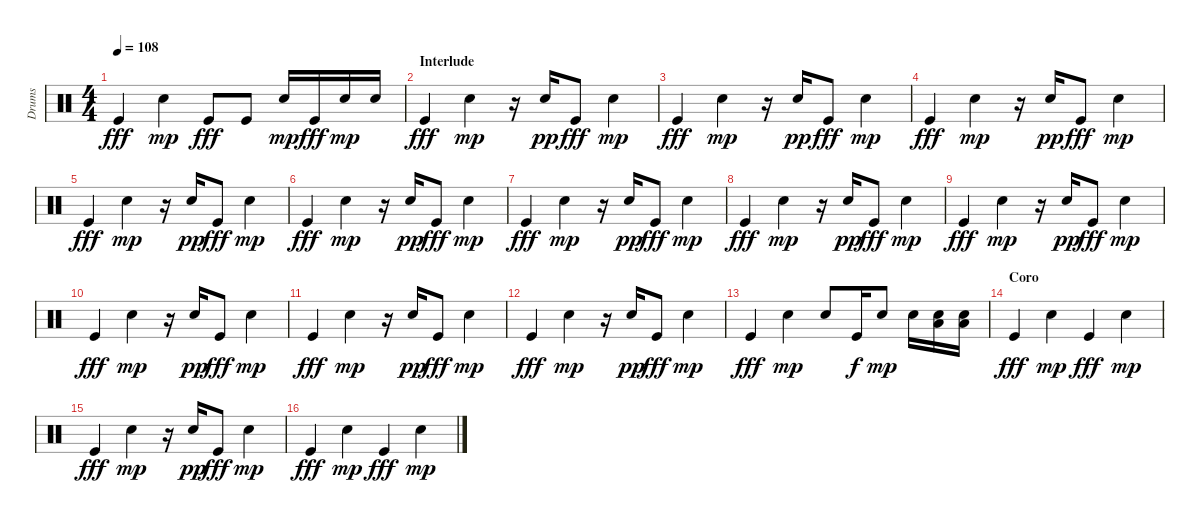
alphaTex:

\track ("Drums" "Drums") {instrument percussion}
\staff {score}
\articulation defaults
\ts (4 4)
\tempo 108
\clef neutral
\ks c "Kick (hit)".4{dy fff} "Snare (hit) 2".4{dy mp} "Kick (hit)".8{dy fff} "Kick (hit)".8 "Snare (hit) 2".16{dy mp} "Kick (hit)".16{dy fff} "Snare (hit) 2".16{dy mp} "Snare (hit) 2".16
|
\section ("" "Interlude")
"Kick (hit)".4{dy fff} "Snare (hit) 2".4{dy mp} r.16 "Snare (hit) 2".16{dy pp} "Kick (hit)".8{dy fff} "Snare (hit) 2".4{dy mp} |
"Kick (hit)".4{dy fff} "Snare (hit) 2".4{dy mp} r.16 "Snare (hit) 2".16{dy pp} "Kick (hit)".8{dy fff} "Snare (hit) 2".4{dy mp} |
"Kick (hit)".4{dy fff} "Snare (hit) 2".4{dy mp} r.16 "Snare (hit) 2".16{dy pp} "Kick (hit)".8{dy fff} "Snare (hit) 2".4{dy mp} |
"Kick (hit)".4{dy fff} "Snare (hit) 2".4{dy mp} r.16 "Snare (hit) 2".16{dy pp} "Kick (hit)".8{dy fff} "Snare (hit) 2".4{dy mp} |
"Kick (hit)".4{dy fff} "Snare (hit) 2".4{dy mp} r.16 "Snare (hit) 2".16{dy pp} "Kick (hit)".8{dy fff} "Snare (hit) 2".4{dy mp} |
"Kick (hit)".4{dy fff} "Snare (hit) 2".4{dy mp} r.16 "Snare (hit) 2".16{dy pp} "Kick (hit)".8{dy fff} "Snare (hit) 2".4{dy mp} |
"Kick (hit)".4{dy fff} "Snare (hit) 2".4{dy mp} r.16 "Snare (hit) 2".16{dy pp} "Kick (hit)".8{dy fff} "Snare (hit) 2".4{dy mp} |
"Kick (hit)".4{dy fff} "Snare (hit) 2".4{dy mp} r.16 "Snare (hit) 2".16{dy pp} "Kick (hit)".8{dy fff} "Snare (hit) 2".4{dy mp} |
"Kick (hit)".4{dy fff} "Snare (hit) 2".4{dy mp} r.16 "Snare (hit) 2".16{dy pp} "Kick (hit)".8{dy fff} "Snare (hit) 2".4{dy mp} |
"Kick (hit)".4{dy fff} "Snare (hit) 2".4{dy mp} r.16 "Snare (hit) 2".16{dy pp} "Kick (hit)".8{dy fff} "Snare (hit) 2".4{dy mp} |
"Kick (hit)".4{dy fff} "Snare (hit) 2".4{dy mp} r.16 "Snare (hit) 2".16{dy pp} "Kick (hit)".8{dy fff} "Snare (hit) 2".4{dy mp} |
"Kick (hit)".4{dy fff} "Snare (hit) 2".4{dy mp} "Snare (hit) 2".8 "Kick (hit)".16{dy f} "Snare (hit) 2".8{dy mp} "Snare (hit) 2".16 ("Low Tom (hit)" "Snare (hit) 2").16 ("Low Tom (hit)" "Snare (hit) 2").16 |
\section ("" "Coro")
"Kick (hit)".4{dy fff} "Snare (hit) 2".4{dy mp} "Kick (hit)".4{dy fff} "Snare (hit) 2".4{dy mp} |
"Kick (hit)".4{dy fff} "Snare (hit) 2".4{dy mp} r.16 "Snare (hit) 2".16{dy pp} "Kick (hit)".8{dy fff} "Snare (hit) 2".4{dy mp} |
"Kick (hit)".4{dy fff} "Snare (hit) 2".4{dy mp} "Kick (hit)".4{dy fff} "Snare (hit) 2".4{dy mp}
